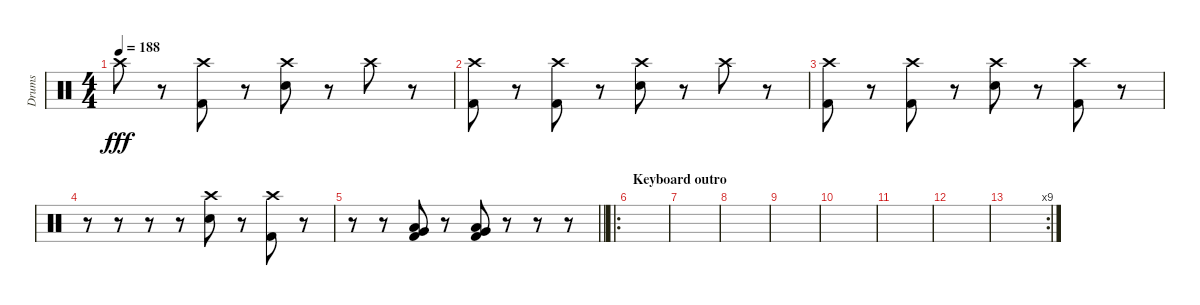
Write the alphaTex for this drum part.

\track ("Drums" "Drums") {instrument percussion}
\staff {score}
\articulation defaults
\ts (4 4)
\tempo 188
\clef neutral
\ks c "Crash high (hit)".8{dy fff}
r.8 ("Crash high (hit)" "Kick (hit) 2").8 r.8 ("Crash high (hit)" "Electric Snare (hit)").8 r.8 "Crash high (hit)".8 r.8 |
("Crash high (hit)" "Kick (hit) 2").8 r.8 ("Crash high (hit)" "Kick (hit) 2").8 r.8 ("Crash high (hit)" "Electric Snare (hit)").8 r.8 "Crash high (hit)".8 r.8 |
("Crash high (hit)" "Kick (hit) 2").8 r.8 ("Crash high (hit)" "Kick (hit) 2").8 r.8 ("Crash high (hit)" "Electric Snare (hit)").8 r.8 ("Crash high (hit)" "Kick (hit) 2").8 r.8 |
r.8 r.8 r.8 r.8 ("Crash high (hit)" "Electric Snare (hit)").8 r.8 ("Crash high (hit)" "Kick (hit) 2").8 r.8 |
\barLineRight lightlight
r.8 r.8 ("Very Low Tom (hit)" "Low Tom (hit)" "Kick (hit) 2").8 r.8 ("Very Low Tom (hit)" "Low Tom (hit)" "Kick (hit) 2").8 r.8 r.8 r.8 |
\ro
\section ("" "Keyboard outro")
|
|
|
|
|
|
|
\rc 9
